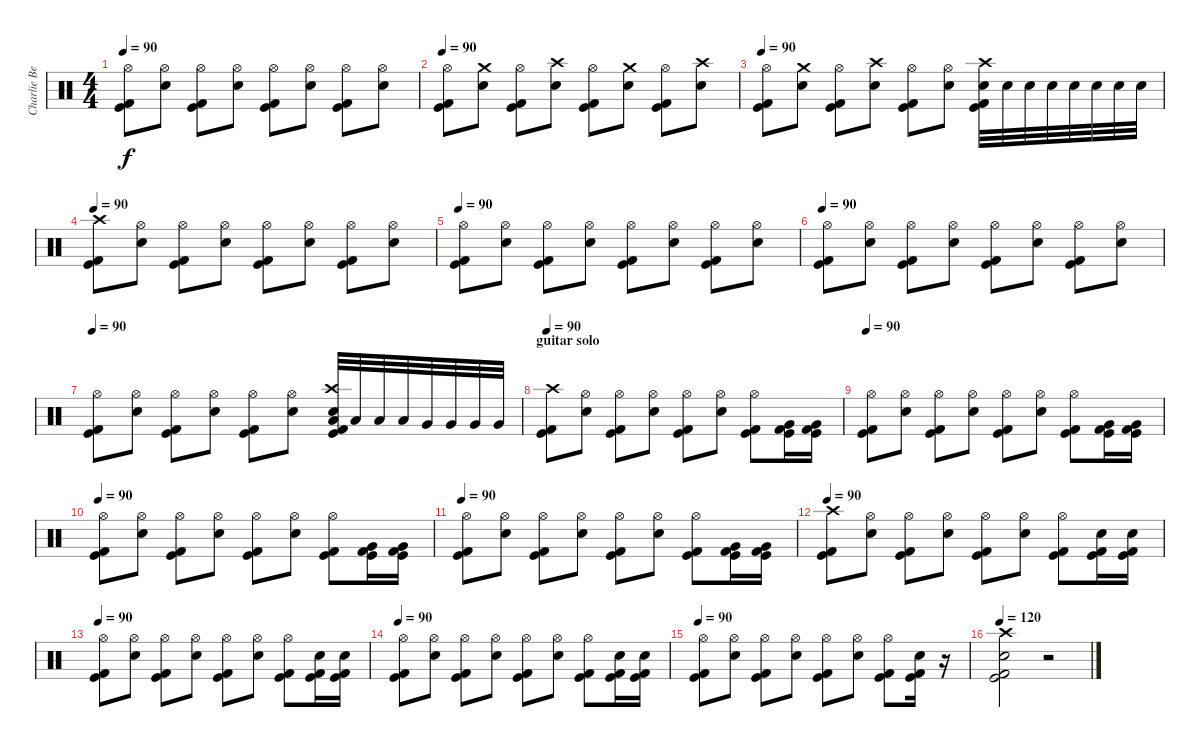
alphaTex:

\track ("Charlie Benante" "Charlie Be") {instrument percussion}
\staff {score}
\articulation defaults
\ts (4 4)
\tempo 90
\clef neutral
\ks c
("Hi-Hat (open)" "Kick (hit) 2" "Kick (hit)").8{dy f} ("Hi-Hat (open)" "Electric Snare (hit)").8 ("Hi-Hat (open)" "Kick (hit) 2" "Kick (hit)").8 ("Hi-Hat (open)" "Electric Snare (hit)").8 ("Hi-Hat (open)" "Kick (hit) 2" "Kick (hit)").8 ("Hi-Hat (open)" "Electric Snare (hit)").8 ("Hi-Hat (open)" "Kick (hit) 2" "Kick (hit)").8 ("Hi-Hat (open)" "Electric Snare (hit)").8 |
\tempo 90
("Hi-Hat (open)" "Kick (hit) 2" "Kick (hit)").8 ("Crash medium (hit)" "Electric Snare (hit)").8 ("Hi-Hat (open)" "Kick (hit) 2" "Kick (hit)").8 ("Crash high (hit)" "Electric Snare (hit)").8 ("Hi-Hat (open)" "Kick (hit) 2" "Kick (hit)").8 ("Crash medium (hit)" "Electric Snare (hit)").8 ("Hi-Hat (open)" "Kick (hit) 2" "Kick (hit)").8 ("Crash high (hit)" "Electric Snare (hit)").8 |
\tempo 90
("Hi-Hat (open)" "Kick (hit) 2" "Kick (hit)").8 ("Crash medium (hit)" "Electric Snare (hit)").8 ("Hi-Hat (open)" "Kick (hit) 2" "Kick (hit)").8 ("Crash high (hit)" "Electric Snare (hit)").8 ("Hi-Hat (open)" "Kick (hit) 2" "Kick (hit)").8 ("Hi-Hat (open)" "Electric Snare (hit)").8 ("Crash high (hit)" "Electric Snare (hit)" "Kick (hit) 2" "Kick (hit)").32 "Electric Snare (hit)".32 "Electric Snare (hit)".32 "Electric Snare (hit)".32 "Electric Snare (hit)".32 "Electric Snare (hit)".32 "Electric Snare (hit)".32 "Electric Snare (hit)".32 |
\tempo 90
("Crash high (hit)" "Kick (hit) 2" "Kick (hit)").8 ("Hi-Hat (open)" "Electric Snare (hit)").8 ("Hi-Hat (open)" "Kick (hit) 2" "Kick (hit)").8 ("Hi-Hat (open)" "Electric Snare (hit)").8 ("Hi-Hat (open)" "Kick (hit) 2" "Kick (hit)").8 ("Hi-Hat (open)" "Electric Snare (hit)").8 ("Hi-Hat (open)" "Kick (hit) 2" "Kick (hit)").8 ("Hi-Hat (open)" "Electric Snare (hit)").8 |
\tempo 90
("Hi-Hat (open)" "Kick (hit) 2" "Kick (hit)").8 ("Hi-Hat (open)" "Electric Snare (hit)").8 ("Hi-Hat (open)" "Kick (hit) 2" "Kick (hit)").8 ("Hi-Hat (open)" "Electric Snare (hit)").8 ("Hi-Hat (open)" "Kick (hit) 2" "Kick (hit)").8 ("Hi-Hat (open)" "Electric Snare (hit)").8 ("Hi-Hat (open)" "Kick (hit) 2" "Kick (hit)").8 ("Hi-Hat (open)" "Electric Snare (hit)").8 |
\tempo 90
("Hi-Hat (open)" "Kick (hit) 2" "Kick (hit)").8 ("Hi-Hat (open)" "Electric Snare (hit)").8 ("Hi-Hat (open)" "Kick (hit) 2" "Kick (hit)").8 ("Hi-Hat (open)" "Electric Snare (hit)").8 ("Hi-Hat (open)" "Kick (hit) 2" "Kick (hit)").8 ("Hi-Hat (open)" "Electric Snare (hit)").8 ("Hi-Hat (open)" "Kick (hit) 2" "Kick (hit)").8 ("Hi-Hat (open)" "Electric Snare (hit)").8 |
\tempo 90
("Hi-Hat (open)" "Kick (hit) 2" "Kick (hit)").8 ("Hi-Hat (open)" "Electric Snare (hit)").8 ("Hi-Hat (open)" "Kick (hit) 2" "Kick (hit)").8 ("Hi-Hat (open)" "Electric Snare (hit)").8 ("Hi-Hat (open)" "Kick (hit) 2" "Kick (hit)").8 ("Hi-Hat (open)" "Electric Snare (hit)").8 ("Crash high (hit)" "Low Tom (hit)" "Electric Snare (hit)" "Kick (hit) 2" "Kick (hit)").32 "Low Tom (hit)".32 "Low Tom (hit)".32 "Low Tom (hit)".32 "Very Low Tom (hit)".32 "Very Low Tom (hit)".32 "Very Low Tom (hit)".32 "Very Low Tom (hit)".32 |
\section ("" "guitar solo")
\tempo 90
("Crash high (hit)" "Kick (hit) 2" "Kick (hit)").8 ("Hi-Hat (open)" "Electric Snare (hit)").8 ("Hi-Hat (open)" "Kick (hit) 2" "Kick (hit)").8 ("Hi-Hat (open)" "Electric Snare (hit)").8 ("Hi-Hat (open)" "Kick (hit) 2" "Kick (hit)").8 ("Hi-Hat (open)" "Electric Snare (hit)").8 ("Hi-Hat (open)" "Kick (hit) 2" "Kick (hit)").8 ("Very Low Tom (hit)" "Kick (hit) 2" "Kick (hit)").16 ("Very Low Tom (hit)" "Kick (hit) 2" "Kick (hit)").16 |
\tempo 90
("Hi-Hat (open)" "Kick (hit) 2" "Kick (hit)").8 ("Hi-Hat (open)" "Electric Snare (hit)").8 ("Hi-Hat (open)" "Kick (hit) 2" "Kick (hit)").8 ("Hi-Hat (open)" "Electric Snare (hit)").8 ("Hi-Hat (open)" "Kick (hit) 2" "Kick (hit)").8 ("Hi-Hat (open)" "Electric Snare (hit)").8 ("Hi-Hat (open)" "Kick (hit) 2" "Kick (hit)").8 ("Very Low Tom (hit)" "Kick (hit) 2" "Kick (hit)").16 ("Very Low Tom (hit)" "Kick (hit) 2" "Kick (hit)").16 |
\tempo 90
("Hi-Hat (open)" "Kick (hit) 2" "Kick (hit)").8 ("Hi-Hat (open)" "Electric Snare (hit)").8 ("Hi-Hat (open)" "Kick (hit) 2" "Kick (hit)").8 ("Hi-Hat (open)" "Electric Snare (hit)").8 ("Hi-Hat (open)" "Kick (hit) 2" "Kick (hit)").8 ("Hi-Hat (open)" "Electric Snare (hit)").8 ("Hi-Hat (open)" "Kick (hit) 2" "Kick (hit)").8 ("Very Low Tom (hit)" "Kick (hit) 2" "Kick (hit)").16 ("Very Low Tom (hit)" "Kick (hit) 2" "Kick (hit)").16 |
\tempo 90
("Hi-Hat (open)" "Kick (hit) 2" "Kick (hit)").8 ("Hi-Hat (open)" "Electric Snare (hit)").8 ("Hi-Hat (open)" "Kick (hit) 2" "Kick (hit)").8 ("Hi-Hat (open)" "Electric Snare (hit)").8 ("Hi-Hat (open)" "Kick (hit) 2" "Kick (hit)").8 ("Hi-Hat (open)" "Electric Snare (hit)").8 ("Hi-Hat (open)" "Kick (hit) 2" "Kick (hit)").8 ("Very Low Tom (hit)" "Kick (hit) 2" "Kick (hit)").16 ("Very Low Tom (hit)" "Kick (hit) 2" "Kick (hit)").16 |
\tempo 90
("Crash high (hit)" "Kick (hit) 2" "Kick (hit)").8 ("Hi-Hat (open)" "Electric Snare (hit)").8 ("Hi-Hat (open)" "Kick (hit) 2" "Kick (hit)").8 ("Hi-Hat (open)" "Electric Snare (hit)").8 ("Hi-Hat (open)" "Kick (hit) 2" "Kick (hit)").8 ("Hi-Hat (open)" "Electric Snare (hit)").8 ("Hi-Hat (open)" "Kick (hit) 2" "Kick (hit)").8 ("Electric Snare (hit)" "Kick (hit) 2" "Kick (hit)").16 ("Electric Snare (hit)" "Kick (hit) 2" "Kick (hit)").16 |
\tempo 90
("Hi-Hat (open)" "Kick (hit) 2" "Kick (hit)").8 ("Hi-Hat (open)" "Electric Snare (hit)").8 ("Hi-Hat (open)" "Kick (hit) 2" "Kick (hit)").8 ("Hi-Hat (open)" "Electric Snare (hit)").8 ("Hi-Hat (open)" "Kick (hit) 2" "Kick (hit)").8 ("Hi-Hat (open)" "Electric Snare (hit)").8 ("Hi-Hat (open)" "Kick (hit) 2" "Kick (hit)").8 ("Electric Snare (hit)" "Kick (hit) 2" "Kick (hit)").16 ("Electric Snare (hit)" "Kick (hit) 2" "Kick (hit)").16 |
\tempo 90
("Hi-Hat (open)" "Kick (hit) 2" "Kick (hit)").8 ("Hi-Hat (open)" "Electric Snare (hit)").8 ("Hi-Hat (open)" "Kick (hit) 2" "Kick (hit)").8 ("Hi-Hat (open)" "Electric Snare (hit)").8 ("Hi-Hat (open)" "Kick (hit) 2" "Kick (hit)").8 ("Hi-Hat (open)" "Electric Snare (hit)").8 ("Hi-Hat (open)" "Kick (hit) 2" "Kick (hit)").8 ("Electric Snare (hit)" "Kick (hit) 2" "Kick (hit)").16 ("Electric Snare (hit)" "Kick (hit) 2" "Kick (hit)").16 |
\tempo 90
("Hi-Hat (open)" "Kick (hit) 2" "Kick (hit)").8 ("Hi-Hat (open)" "Electric Snare (hit)").8 ("Hi-Hat (open)" "Kick (hit) 2" "Kick (hit)").8 ("Hi-Hat (open)" "Electric Snare (hit)").8 ("Hi-Hat (open)" "Kick (hit) 2" "Kick (hit)").8 ("Hi-Hat (open)" "Electric Snare (hit)").8 ("Hi-Hat (open)" "Kick (hit) 2" "Kick (hit)").8 ("Electric Snare (hit)" "Kick (hit) 2" "Kick (hit)").16 r.16 |
\tempo 120
("Crash high (hit)" "Electric Snare (hit)" "Kick (hit) 2" "Kick (hit)").2 r.2
